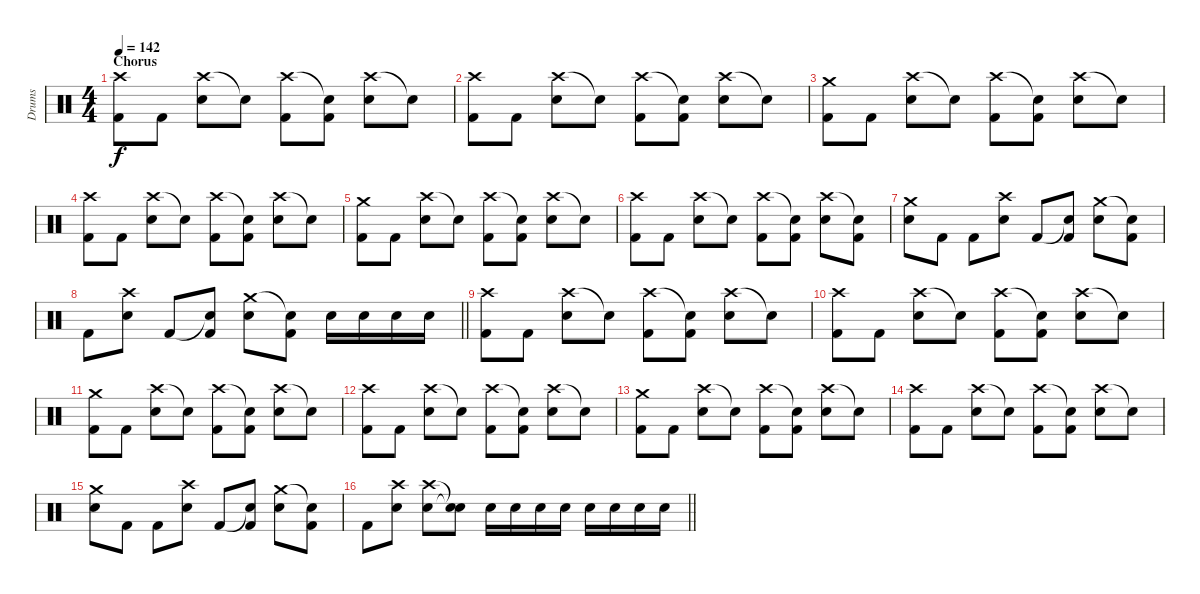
\track ("Drums" "Drums") {instrument percussion}
\staff {score}
\articulation defaults
\ts (4 4)
\section ("" "Chorus")
\tempo 142
\clef neutral
\ks c
("Crash high (hit)" "Kick (hit) 2").8{dy f} "Kick (hit) 2".8 ("Crash high (hit)" "Electric Snare (hit)").8 "Snare (hit)"{t}.8 ("Crash high (hit)" "Kick (hit) 2").8 ("Snare (hit)"{t} "Kick (hit) 2").8 ("Crash high (hit)" "Electric Snare (hit)").8 "Snare (hit)"{t}.8 |
("Crash high (hit)" "Kick (hit) 2").8 "Kick (hit) 2".8 ("Crash high (hit)" "Electric Snare (hit)").8 "Snare (hit)"{t}.8 ("Crash high (hit)" "Kick (hit) 2").8 ("Snare (hit)"{t} "Kick (hit) 2").8 ("Crash high (hit)" "Electric Snare (hit)").8 "Snare (hit)"{t}.8 |
("Crash medium (hit)" "Kick (hit) 2").8 "Kick (hit) 2".8 ("Crash high (hit)" "Electric Snare (hit)").8 "Snare (hit)"{t}.8 ("Crash high (hit)" "Kick (hit) 2").8 ("Snare (hit)"{t} "Kick (hit) 2").8 ("Crash high (hit)" "Electric Snare (hit)").8 "Snare (hit)"{t}.8 |
("Crash high (hit)" "Kick (hit) 2").8 "Kick (hit) 2".8 ("Crash high (hit)" "Electric Snare (hit)").8 "Snare (hit)"{t}.8 ("Crash high (hit)" "Kick (hit) 2").8 ("Snare (hit)"{t} "Kick (hit) 2").8 ("Crash high (hit)" "Electric Snare (hit)").8 "Snare (hit)"{t}.8 |
("Crash medium (hit)" "Kick (hit) 2").8 "Kick (hit) 2".8 ("Crash high (hit)" "Electric Snare (hit)").8 "Snare (hit)"{t}.8 ("Crash high (hit)" "Kick (hit) 2").8 ("Snare (hit)"{t} "Kick (hit) 2").8 ("Crash high (hit)" "Electric Snare (hit)").8 "Snare (hit)"{t}.8 |
("Crash high (hit)" "Kick (hit) 2").8 "Kick (hit) 2".8 ("Crash high (hit)" "Electric Snare (hit)").8 "Snare (hit)"{t}.8 ("Crash high (hit)" "Kick (hit) 2").8 ("Snare (hit)"{t} "Kick (hit) 2").8 ("Crash high (hit)" "Electric Snare (hit)").8 ("Snare (hit)"{t} "Kick (hit) 2").8 |
("Crash medium (hit)" "Electric Snare (hit)").8 "Kick (hit) 2".8 "Kick (hit) 2".8 ("Crash high (hit)" "Electric Snare (hit)").8 "Kick (hit) 2".8 ("Snare (hit)"{t} "Kick (hit) 2").8 ("Crash medium (hit)" "Electric Snare (hit)").8 ("Snare (hit)"{t} "Kick (hit) 2").8 |
\barLineRight lightlight "Kick (hit) 2".8
("Crash high (hit)" "Electric Snare (hit)").8 "Kick (hit) 2".8 ("Snare (hit)"{t} "Kick (hit) 2").8 ("Crash medium (hit)" "Electric Snare (hit)").8 ("Snare (hit)"{t} "Kick (hit) 2").8 "Electric Snare (hit)".16 "Electric Snare (hit)".16 "Electric Snare (hit)".16 "Electric Snare (hit)".16 |
("Crash high (hit)" "Kick (hit) 2").8 "Kick (hit) 2".8 ("Crash high (hit)" "Electric Snare (hit)").8 "Snare (hit)"{t}.8 ("Crash high (hit)" "Kick (hit) 2").8 ("Snare (hit)"{t} "Kick (hit) 2").8 ("Crash high (hit)" "Electric Snare (hit)").8 "Snare (hit)"{t}.8 |
("Crash high (hit)" "Kick (hit) 2").8 "Kick (hit) 2".8 ("Crash high (hit)" "Electric Snare (hit)").8 "Snare (hit)"{t}.8 ("Crash high (hit)" "Kick (hit) 2").8 ("Snare (hit)"{t} "Kick (hit) 2").8 ("Crash high (hit)" "Electric Snare (hit)").8 "Snare (hit)"{t}.8 |
("Crash medium (hit)" "Kick (hit) 2").8 "Kick (hit) 2".8 ("Crash high (hit)" "Electric Snare (hit)").8 "Snare (hit)"{t}.8 ("Crash high (hit)" "Kick (hit) 2").8 ("Snare (hit)"{t} "Kick (hit) 2").8 ("Crash high (hit)" "Electric Snare (hit)").8 "Snare (hit)"{t}.8 |
("Crash high (hit)" "Kick (hit) 2").8 "Kick (hit) 2".8 ("Crash high (hit)" "Electric Snare (hit)").8 "Snare (hit)"{t}.8 ("Crash high (hit)" "Kick (hit) 2").8 ("Snare (hit)"{t} "Kick (hit) 2").8 ("Crash high (hit)" "Electric Snare (hit)").8 "Snare (hit)"{t}.8 |
("Crash medium (hit)" "Kick (hit) 2").8 "Kick (hit) 2".8 ("Crash high (hit)" "Electric Snare (hit)").8 "Snare (hit)"{t}.8 ("Crash high (hit)" "Kick (hit) 2").8 ("Snare (hit)"{t} "Kick (hit) 2").8 ("Crash high (hit)" "Electric Snare (hit)").8 "Snare (hit)"{t}.8 |
("Crash high (hit)" "Kick (hit) 2").8 "Kick (hit) 2".8 ("Crash high (hit)" "Electric Snare (hit)").8 "Snare (hit)"{t}.8 ("Crash high (hit)" "Kick (hit) 2").8 ("Snare (hit)"{t} "Kick (hit) 2").8 ("Crash high (hit)" "Electric Snare (hit)").8 "Snare (hit)"{t}.8 |
("Crash medium (hit)" "Electric Snare (hit)").8 "Kick (hit) 2".8 "Kick (hit) 2".8 ("Crash high (hit)" "Electric Snare (hit)").8 "Kick (hit) 2".8 ("Snare (hit)"{t} "Kick (hit) 2").8 ("Crash medium (hit)" "Electric Snare (hit)").8 ("Snare (hit)"{t} "Kick (hit) 2").8 |
\barLineRight lightlight "Kick (hit) 2".8
("Crash high (hit)" "Electric Snare (hit)").8 ("Crash high (hit)" "Electric Snare (hit)").8 ("Snare (hit)"{t} "Snare (hit)"{t}).8 "Electric Snare (hit)".16 "Electric Snare (hit)".16 "Electric Snare (hit)".16 "Electric Snare (hit)".16 "Electric Snare (hit)".16 "Electric Snare (hit)".16 "Electric Snare (hit)".16 "Electric Snare (hit)".16
